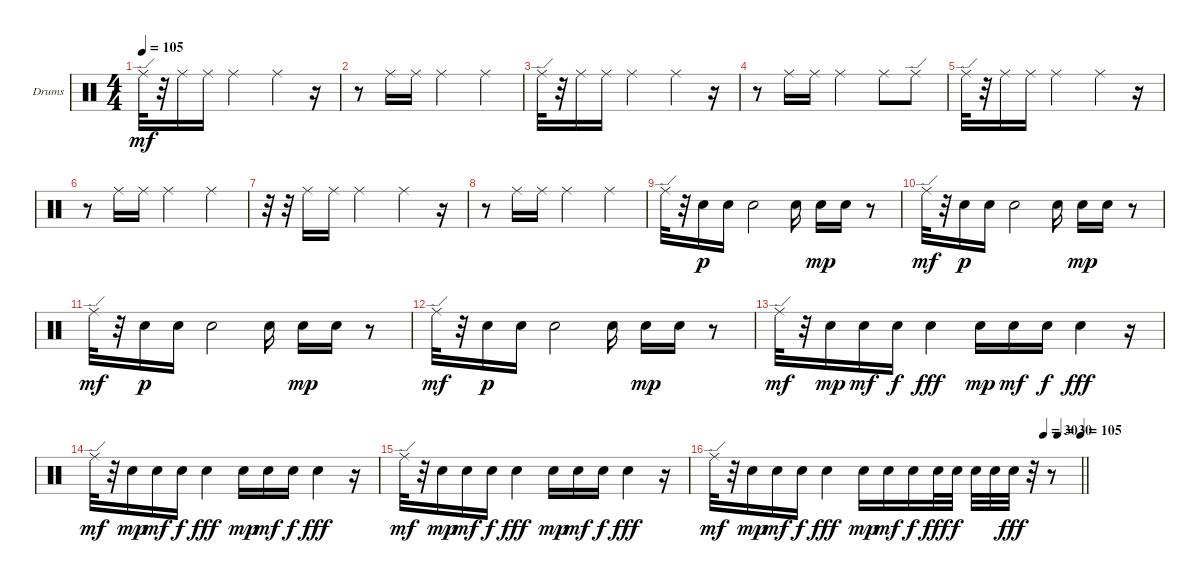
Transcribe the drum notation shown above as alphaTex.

\defaultSystemsLayout 4
\bracketExtendMode groupsimilarinstruments
\firstSystemTrackNameOrientation horizontal
\otherSystemsTrackNameOrientation horizontal
\track ("Drumkit" "Drums") {instrument percussion}
\staff {score}
\articulation defaults
\ts (4 4)
\tempo 105
\clef neutral
\scale
0.472222
\ks c "Ride (edge)".32{dy mf}
r.32 "Ride (middle)".16 "Ride (middle)".16 "Ride (middle)".2 "Ride (middle)".4 r.16 |
\scale
0.263889 r.8 "Ride (middle)".16 "Ride (middle)".16 "Ride (middle)".2 "Ride (middle)".4 |
"Ride (edge)".32 r.32 "Ride (middle)".16 "Ride (middle)".16 "Ride (middle)".2 "Ride (middle)".4 r.16 |
r.8 "Ride (middle)".16 "Ride (middle)".16 "Ride (middle)".2 "Ride (middle)".8 "Ride (edge)".8 |
"Ride (edge)".32 r.32 "Ride (middle)".16 "Ride (middle)".16 "Ride (middle)".2 "Ride (middle)".4 r.16 |
r.8 "Ride (middle)".16 "Ride (middle)".16 "Ride (middle)".2 "Ride (middle)".4 |
r.32 r.32 "Ride (middle)".16 "Ride (middle)".16 "Ride (middle)".2 "Ride (middle)".4 r.16 |
r.8 "Ride (middle)".16 "Ride (middle)".16 "Ride (middle)".2 "Ride (middle)".4 |
"Ride (edge)".32 r.32 "Snare (hit) 2".16{dy p} "Snare (hit) 2".16 "Snare (hit) 2".2 "Snare (hit) 2".16 "Snare (hit) 2".16{dy mp} "Snare (hit) 2".16 r.8 |
"Ride (edge)".32{dy mf} r.32 "Snare (hit) 2".16{dy p} "Snare (hit) 2".16 "Snare (hit) 2".2 "Snare (hit) 2".16 "Snare (hit) 2".16{dy mp} "Snare (hit) 2".16 r.8 |
"Ride (edge)".32{dy mf} r.32 "Snare (hit) 2".16{dy p} "Snare (hit) 2".16 "Snare (hit) 2".2 "Snare (hit) 2".16 "Snare (hit) 2".16{dy mp} "Snare (hit) 2".16 r.8 |
"Ride (edge)".32{dy mf} r.32 "Snare (hit) 2".16{dy p} "Snare (hit) 2".16 "Snare (hit) 2".2 "Snare (hit) 2".16 "Snare (hit) 2".16{dy mp} "Snare (hit) 2".16 r.8 |
"Ride (edge)".32{dy mf} r.32 "Snare (hit) 2".16{dy mp} "Snare (hit) 2".16{dy mf} "Snare (hit) 2".16{dy f} "Snare (hit) 2".4{dy fff} "Snare (hit) 2".16{dy mp} "Snare (hit) 2".16{dy mf} "Snare (hit) 2".16{dy f} "Snare (hit) 2".4{dy fff} r.16 |
"Ride (edge)".32{dy mf} r.32 "Snare (hit) 2".16{dy mp} "Snare (hit) 2".16{dy mf} "Snare (hit) 2".16{dy f} "Snare (hit) 2".4{dy fff} "Snare (hit) 2".16{dy mp} "Snare (hit) 2".16{dy mf} "Snare (hit) 2".16{dy f} "Snare (hit) 2".4{dy fff} r.16 |
"Ride (edge)".32{dy mf} r.32 "Snare (hit) 2".16{dy mp} "Snare (hit) 2".16{dy mf} "Snare (hit) 2".16{dy f} "Snare (hit) 2".4{dy fff} "Snare (hit) 2".16{dy mp} "Snare (hit) 2".16{dy mf} "Snare (hit) 2".16{dy f} "Snare (hit) 2".4{dy fff} r.16 |
\tempo (30 0.898678)
\tempo (30 0.9375)
\tempo (105 1)
\barLineRight lightlight "Ride (edge)".32{dy mf}
r.32 "Snare (hit) 2".16{dy mp} "Snare (hit) 2".16{dy mf} "Snare (hit) 2".16{dy f} "Snare (hit) 2".4{dy fff} "Snare (hit) 2".16{dy mp} "Snare (hit) 2".16{dy mf} "Snare (hit) 2".16{dy f} "Snare (hit) 2".32{dy fff} "Snare (hit) 2".32{dy f} "Snare (hit) 2".32 "Snare (hit) 2".32 "Snare (hit) 2".32{dy fff} r.32 r.8
